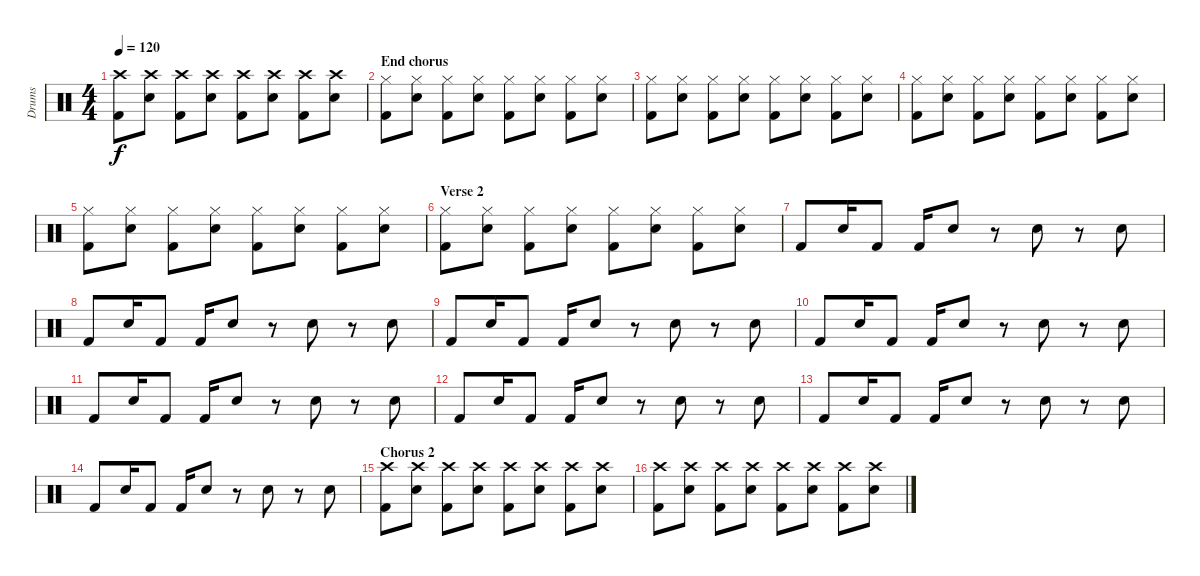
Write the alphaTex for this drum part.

\track ("Drums" "Drums") {instrument percussion}
\staff {score}
\articulation defaults
\ts (4 4)
\tempo 120
\clef neutral
\ks c
("Crash high (hit)" "Kick (hit) 2").8{dy f} ("Crash high (hit)" "Electric Snare (hit)").8 ("Crash high (hit)" "Kick (hit) 2").8 ("Crash high (hit)" "Electric Snare (hit)").8 ("Crash high (hit)" "Kick (hit) 2").8 ("Crash high (hit)" "Electric Snare (hit)").8 ("Crash high (hit)" "Kick (hit) 2").8 ("Crash high (hit)" "Electric Snare (hit)").8 |
\section ("" "End chorus")
("Hi-Hat (closed)" "Kick (hit) 2").8 ("Hi-Hat (closed)" "Electric Snare (hit)").8 ("Hi-Hat (closed)" "Kick (hit) 2").8 ("Hi-Hat (closed)" "Electric Snare (hit)").8 ("Hi-Hat (closed)" "Kick (hit) 2").8 ("Hi-Hat (closed)" "Electric Snare (hit)").8 ("Hi-Hat (closed)" "Kick (hit) 2").8 ("Hi-Hat (closed)" "Electric Snare (hit)").8 |
("Hi-Hat (closed)" "Kick (hit) 2").8 ("Hi-Hat (closed)" "Electric Snare (hit)").8 ("Hi-Hat (closed)" "Kick (hit) 2").8 ("Hi-Hat (closed)" "Electric Snare (hit)").8 ("Hi-Hat (closed)" "Kick (hit) 2").8 ("Hi-Hat (closed)" "Electric Snare (hit)").8 ("Hi-Hat (closed)" "Kick (hit) 2").8 ("Hi-Hat (closed)" "Electric Snare (hit)").8 |
("Hi-Hat (closed)" "Kick (hit) 2").8 ("Hi-Hat (closed)" "Electric Snare (hit)").8 ("Hi-Hat (closed)" "Kick (hit) 2").8 ("Hi-Hat (closed)" "Electric Snare (hit)").8 ("Hi-Hat (closed)" "Kick (hit) 2").8 ("Hi-Hat (closed)" "Electric Snare (hit)").8 ("Hi-Hat (closed)" "Kick (hit) 2").8 ("Hi-Hat (closed)" "Electric Snare (hit)").8 |
("Hi-Hat (closed)" "Kick (hit) 2").8 ("Hi-Hat (closed)" "Electric Snare (hit)").8 ("Hi-Hat (closed)" "Kick (hit) 2").8 ("Hi-Hat (closed)" "Electric Snare (hit)").8 ("Hi-Hat (closed)" "Kick (hit) 2").8 ("Hi-Hat (closed)" "Electric Snare (hit)").8 ("Hi-Hat (closed)" "Kick (hit) 2").8 ("Hi-Hat (closed)" "Electric Snare (hit)").8 |
\section ("" "Verse 2")
("Hi-Hat (closed)" "Kick (hit) 2").8 ("Hi-Hat (closed)" "Electric Snare (hit)").8 ("Hi-Hat (closed)" "Kick (hit) 2").8 ("Hi-Hat (closed)" "Electric Snare (hit)").8 ("Hi-Hat (closed)" "Kick (hit) 2").8 ("Hi-Hat (closed)" "Electric Snare (hit)").8 ("Hi-Hat (closed)" "Kick (hit) 2").8 ("Hi-Hat (closed)" "Electric Snare (hit)").8 |
"Kick (hit) 2".8 "Electric Snare (hit)".16 "Kick (hit) 2".8 "Kick (hit) 2".16 "Electric Snare (hit)".8 r.8 "Electric Snare (hit)".8 r.8 "Electric Snare (hit)".8 |
"Kick (hit) 2".8 "Electric Snare (hit)".16 "Kick (hit) 2".8 "Kick (hit) 2".16 "Electric Snare (hit)".8 r.8 "Electric Snare (hit)".8 r.8 "Electric Snare (hit)".8 |
"Kick (hit) 2".8 "Electric Snare (hit)".16 "Kick (hit) 2".8 "Kick (hit) 2".16 "Electric Snare (hit)".8 r.8 "Electric Snare (hit)".8 r.8 "Electric Snare (hit)".8 |
"Kick (hit) 2".8 "Electric Snare (hit)".16 "Kick (hit) 2".8 "Kick (hit) 2".16 "Electric Snare (hit)".8 r.8 "Electric Snare (hit)".8 r.8 "Electric Snare (hit)".8 |
"Kick (hit) 2".8 "Electric Snare (hit)".16 "Kick (hit) 2".8 "Kick (hit) 2".16 "Electric Snare (hit)".8 r.8 "Electric Snare (hit)".8 r.8 "Electric Snare (hit)".8 |
"Kick (hit) 2".8 "Electric Snare (hit)".16 "Kick (hit) 2".8 "Kick (hit) 2".16 "Electric Snare (hit)".8 r.8 "Electric Snare (hit)".8 r.8 "Electric Snare (hit)".8 |
"Kick (hit) 2".8 "Electric Snare (hit)".16 "Kick (hit) 2".8 "Kick (hit) 2".16 "Electric Snare (hit)".8 r.8 "Electric Snare (hit)".8 r.8 "Electric Snare (hit)".8 |
"Kick (hit) 2".8 "Electric Snare (hit)".16 "Kick (hit) 2".8 "Kick (hit) 2".16 "Electric Snare (hit)".8 r.8 "Electric Snare (hit)".8 r.8 "Electric Snare (hit)".8 |
\section ("" "Chorus 2 ")
("Crash high (hit)" "Kick (hit) 2").8 ("Crash high (hit)" "Electric Snare (hit)").8 ("Crash high (hit)" "Kick (hit) 2").8 ("Crash high (hit)" "Electric Snare (hit)").8 ("Crash high (hit)" "Kick (hit) 2").8 ("Crash high (hit)" "Electric Snare (hit)").8 ("Crash high (hit)" "Kick (hit) 2").8 ("Crash high (hit)" "Electric Snare (hit)").8 |
("Crash high (hit)" "Kick (hit) 2").8 ("Crash high (hit)" "Electric Snare (hit)").8 ("Crash high (hit)" "Kick (hit) 2").8 ("Crash high (hit)" "Electric Snare (hit)").8 ("Crash high (hit)" "Kick (hit) 2").8 ("Crash high (hit)" "Electric Snare (hit)").8 ("Crash high (hit)" "Kick (hit) 2").8 ("Crash high (hit)" "Electric Snare (hit)").8
